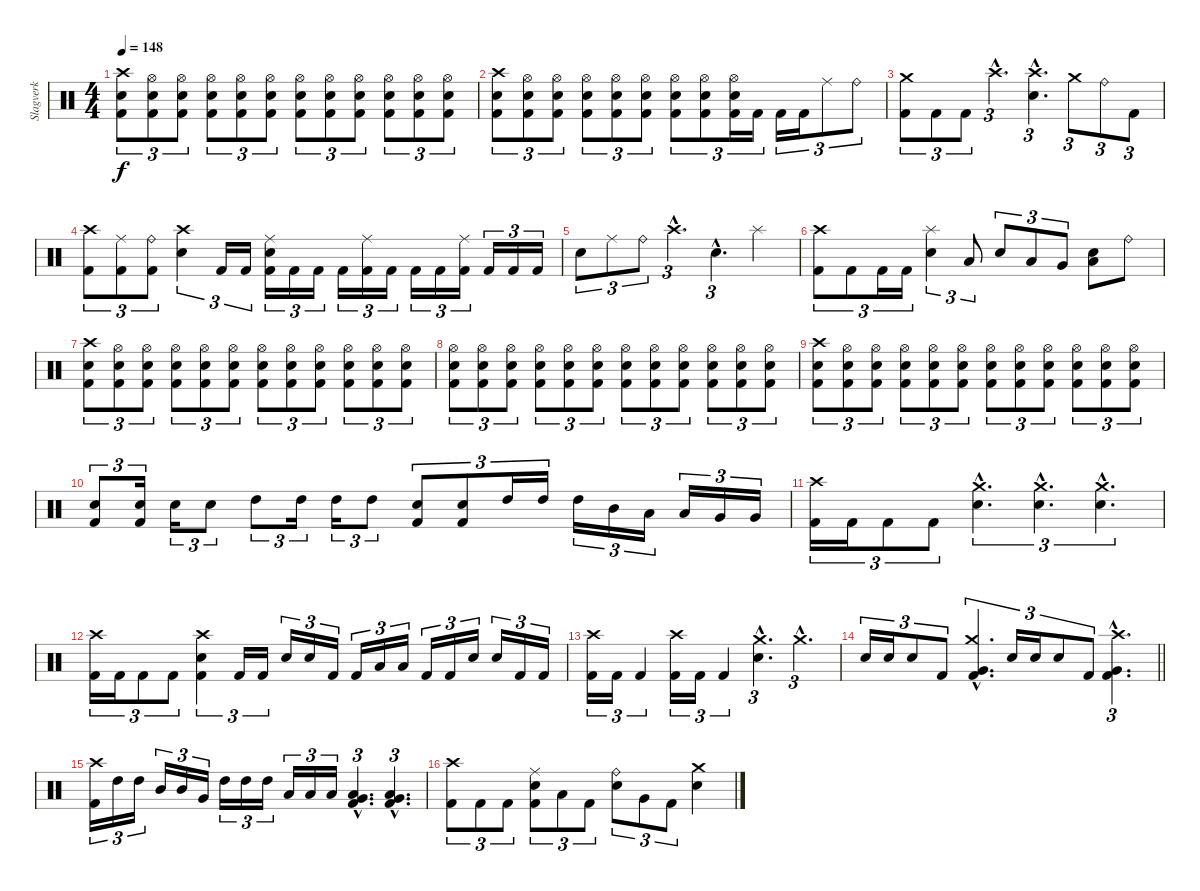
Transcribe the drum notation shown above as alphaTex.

\track ("Slagverk" "Slagverk") {instrument percussion}
\staff {score}
\articulation defaults
\ts (4 4)
\tempo 148
\clef neutral
\ks c
("Crash high (hit)" "Snare (hit) 2" "Kick (hit) 2").8{tu (3 2) dy f} ("Hi-Hat (open)" "Snare (hit) 2" "Kick (hit) 2").8{tu (3 2)} ("Hi-Hat (open)" "Snare (hit) 2" "Kick (hit) 2").8{tu (3 2)} ("Hi-Hat (open)" "Snare (hit) 2" "Kick (hit) 2").8{tu (3 2)} ("Hi-Hat (open)" "Snare (hit) 2" "Kick (hit) 2").8{tu (3 2)} ("Hi-Hat (open)" "Snare (hit) 2" "Kick (hit) 2").8{tu (3 2)} ("Hi-Hat (open)" "Snare (hit) 2" "Kick (hit) 2").8{tu (3 2)} ("Hi-Hat (open)" "Snare (hit) 2" "Kick (hit) 2").8{tu (3 2)} ("Hi-Hat (open)" "Snare (hit) 2" "Kick (hit) 2").8{tu (3 2)} ("Hi-Hat (open)" "Snare (hit) 2" "Kick (hit) 2").8{tu (3 2)} ("Hi-Hat (open)" "Snare (hit) 2" "Kick (hit) 2").8{tu (3 2)} ("Hi-Hat (open)" "Snare (hit) 2" "Kick (hit) 2").8{tu (3 2)} |
("Crash high (hit)" "Snare (hit) 2" "Kick (hit) 2").8{tu (3 2)} ("Hi-Hat (open)" "Snare (hit) 2" "Kick (hit) 2").8{tu (3 2)} ("Hi-Hat (open)" "Snare (hit) 2" "Kick (hit) 2").8{tu (3 2)} ("Hi-Hat (open)" "Snare (hit) 2" "Kick (hit) 2").8{tu (3 2)} ("Hi-Hat (open)" "Snare (hit) 2" "Kick (hit) 2").8{tu (3 2)} ("Hi-Hat (open)" "Snare (hit) 2" "Kick (hit) 2").8{tu (3 2)} ("Hi-Hat (open)" "Snare (hit) 2" "Kick (hit) 2").8{tu (3 2)} ("Hi-Hat (open)" "Snare (hit) 2" "Kick (hit) 2").8{tu (3 2)} ("Hi-Hat (open)" "Snare (hit) 2" "Kick (hit) 2").16{tu (3 2)} "Kick (hit) 2".16{tu (3 2)} "Kick (hit) 2".16{tu (3 2)} "Kick (hit) 2".16{tu (3 2)} "Ride (middle)".8{tu (3 2)} "Ride (bell)".8{tu (3 2)} |
("Crash medium (hit)" "Kick (hit) 2").8{tu (3 2)} "Kick (hit) 2".8{tu (3 2)} "Kick (hit) 2".8{tu (3 2)} "Crash high (hit)"{hac}.4{d tu (3 2)} ("Crash high (hit)"{hac} "Snare (hit) 2"{hac}).4{d tu (3 2)} "Crash medium (hit)".8{tu (3 2)} "Ride (bell)".8{tu (3 2)} "Kick (hit) 2".8{tu (3 2)} |
("Crash high (hit)" "Kick (hit) 2").8{tu (3 2)} ("Ride (middle)" "Kick (hit) 2").8{tu (3 2)} ("Ride (bell)" "Kick (hit) 2").8{tu (3 2)} ("Crash high (hit)" "Snare (hit) 2").4{tu (3 2)} "Kick (hit) 2".16{tu (3 2)} "Kick (hit) 2".16{tu (3 2)} ("Ride (middle)" "Snare (hit) 2" "Kick (hit) 2").16{tu (3 2)} "Kick (hit) 2".16{tu (3 2)} "Kick (hit) 2".16{tu (3 2)} "Kick (hit) 2".16{tu (3 2)} ("Ride (middle)" "Kick (hit) 2").16{tu (3 2)} "Kick (hit) 2".16{tu (3 2)} "Kick (hit) 2".16{tu (3 2)} "Kick (hit) 2".16{tu (3 2)} ("Ride (middle)" "Kick (hit) 2").16{tu (3 2)} "Kick (hit) 2".16{tu (3 2)} "Kick (hit) 2".16{tu (3 2)} "Kick (hit) 2".16{tu (3 2)} |
"Snare (hit) 2".8{tu (3 2)} "Ride (middle)".8{tu (3 2)} "Ride (bell)".8{tu (3 2)} "Crash high (hit)"{hac}.4{d tu (3 2)} "Snare (hit) 2"{hac}.4{d tu (3 2)} "Splash (hit)".4 |
("Crash high (hit)" "Kick (hit) 2").8{tu (3 2)} "Kick (hit) 2".8{tu (3 2)} "Kick (hit) 2".16{tu (3 2)} "Kick (hit) 2".16{tu (3 2)} ("Splash (hit)" "Snare (hit) 2").4{tu (3 2)} "Low Tom (hit)".8{tu (3 2)} "Snare (hit) 2".8{tu (3 2)} "Low Tom (hit)".8{tu (3 2)} "Very Low Tom (hit)".8{tu (3 2)} ("Snare (hit) 2" "Low Floor Tom (hit)").8 "Ride (bell)".8 |
("Crash high (hit)" "Snare (hit) 2" "Kick (hit) 2").8{tu (3 2)} ("Hi-Hat (open)" "Snare (hit) 2" "Kick (hit) 2").8{tu (3 2)} ("Hi-Hat (open)" "Snare (hit) 2" "Kick (hit) 2").8{tu (3 2)} ("Hi-Hat (open)" "Snare (hit) 2" "Kick (hit) 2").8{tu (3 2)} ("Hi-Hat (open)" "Snare (hit) 2" "Kick (hit) 2").8{tu (3 2)} ("Hi-Hat (open)" "Snare (hit) 2" "Kick (hit) 2").8{tu (3 2)} ("Hi-Hat (open)" "Snare (hit) 2" "Kick (hit) 2").8{tu (3 2)} ("Hi-Hat (open)" "Snare (hit) 2" "Kick (hit) 2").8{tu (3 2)} ("Hi-Hat (open)" "Snare (hit) 2" "Kick (hit) 2").8{tu (3 2)} ("Hi-Hat (open)" "Snare (hit) 2" "Kick (hit) 2").8{tu (3 2)} ("Hi-Hat (open)" "Snare (hit) 2" "Kick (hit) 2").8{tu (3 2)} ("Hi-Hat (open)" "Snare (hit) 2" "Kick (hit) 2").8{tu (3 2)} |
("Hi-Hat (open)" "Snare (hit) 2" "Kick (hit) 2").8{tu (3 2)} ("Hi-Hat (open)" "Snare (hit) 2" "Kick (hit) 2").8{tu (3 2)} ("Hi-Hat (open)" "Snare (hit) 2" "Kick (hit) 2").8{tu (3 2)} ("Hi-Hat (open)" "Snare (hit) 2" "Kick (hit) 2").8{tu (3 2)} ("Hi-Hat (open)" "Snare (hit) 2" "Kick (hit) 2").8{tu (3 2)} ("Hi-Hat (open)" "Snare (hit) 2" "Kick (hit) 2").8{tu (3 2)} ("Hi-Hat (open)" "Snare (hit) 2" "Kick (hit) 2").8{tu (3 2)} ("Hi-Hat (open)" "Snare (hit) 2" "Kick (hit) 2").8{tu (3 2)} ("Hi-Hat (open)" "Snare (hit) 2" "Kick (hit) 2").8{tu (3 2)} ("Hi-Hat (open)" "Snare (hit) 2" "Kick (hit) 2").8{tu (3 2)} ("Hi-Hat (open)" "Snare (hit) 2" "Kick (hit) 2").8{tu (3 2)} ("Hi-Hat (open)" "Snare (hit) 2" "Kick (hit) 2").8{tu (3 2)} |
("Crash high (hit)" "Snare (hit) 2" "Kick (hit) 2").8{tu (3 2)} ("Hi-Hat (open)" "Snare (hit) 2" "Kick (hit) 2").8{tu (3 2)} ("Hi-Hat (open)" "Snare (hit) 2" "Kick (hit) 2").8{tu (3 2)} ("Hi-Hat (open)" "Snare (hit) 2" "Kick (hit) 2").8{tu (3 2)} ("Hi-Hat (open)" "Snare (hit) 2" "Kick (hit) 2").8{tu (3 2)} ("Hi-Hat (open)" "Snare (hit) 2" "Kick (hit) 2").8{tu (3 2)} ("Hi-Hat (open)" "Snare (hit) 2" "Kick (hit) 2").8{tu (3 2)} ("Hi-Hat (open)" "Snare (hit) 2" "Kick (hit) 2").8{tu (3 2)} ("Hi-Hat (open)" "Snare (hit) 2" "Kick (hit) 2").8{tu (3 2)} ("Hi-Hat (open)" "Snare (hit) 2" "Kick (hit) 2").8{tu (3 2)} ("Hi-Hat (open)" "Snare (hit) 2" "Kick (hit) 2").8{tu (3 2)} ("Hi-Hat (open)" "Snare (hit) 2" "Kick (hit) 2").8{tu (3 2)} |
("Snare (hit) 2" "Kick (hit) 2").8{tu (3 2)} ("Snare (hit) 2" "Kick (hit) 2").16{tu (3 2)} "Snare (hit) 2".16{tu (3 2)} "Snare (hit) 2".8{tu (3 2)} "High Tom (hit)".8{tu (3 2)} "High Tom (hit)".16{tu (3 2)} "High Tom (hit)".16{tu (3 2)} "High Tom (hit)".8{tu (3 2)} ("Snare (hit) 2" "Kick (hit) 2").8{tu (3 2)} ("Snare (hit) 2" "Kick (hit) 2").8{tu (3 2)} "High Tom (hit)".16{tu (3 2)} "High Tom (hit)".16{tu (3 2)} "High Tom (hit)".16{tu (3 2)} "Mid Tom (hit)".16{tu (3 2)} "Low Tom (hit)".16{tu (3 2)} "Low Tom (hit)".16{tu (3 2)} "Very Low Tom (hit)".16{tu (3 2)} "Very Low Tom (hit)".16{tu (3 2)} |
("Crash high (hit)" "Kick (hit) 2").16{tu (3 2)} "Kick (hit) 2".16{tu (3 2)} "Kick (hit) 2".8{tu (3 2)} "Kick (hit) 2".8{tu (3 2)} ("Crash medium (hit)"{hac} "Snare (hit) 2"{hac}).4{d tu (3 2)} ("Crash medium (hit)"{hac} "Snare (hit) 2"{hac}).4{d tu (3 2)} ("Crash medium (hit)"{hac} "Snare (hit) 2"{hac}).4{d tu (3 2)} |
("Crash high (hit)" "Kick (hit) 2").16{tu (3 2)} "Kick (hit) 2".16{tu (3 2)} "Kick (hit) 2".8{tu (3 2)} "Kick (hit) 2".8{tu (3 2)} ("Crash high (hit)" "Kick (hit) 2" "Snare (hit) 2").4{tu (3 2)} "Kick (hit) 2".16{tu (3 2)} "Kick (hit) 2".16{tu (3 2)} "Snare (hit) 2".16{tu (3 2)} "Snare (hit) 2".16{tu (3 2)} "Kick (hit) 2".16{tu (3 2)} "Kick (hit) 2".16{tu (3 2)} "Low Tom (hit)".16{tu (3 2)} "Low Tom (hit)".16{tu (3 2)} "Kick (hit) 2".16{tu (3 2)} "Kick (hit) 2".16{tu (3 2)} "Snare (hit) 2".16{tu (3 2)} "Snare (hit) 2".16{tu (3 2)} "Kick (hit) 2".16{tu (3 2)} "Kick (hit) 2".16{tu (3 2)} |
("Crash high (hit)" "Kick (hit) 2").16{tu (3 2)} "Kick (hit) 2".16{tu (3 2)} "Kick (hit) 2".4{tu (3 2)} ("Crash high (hit)" "Kick (hit) 2").16{tu (3 2)} "Kick (hit) 2".16{tu (3 2)} "Kick (hit) 2".4{tu (3 2)} ("Crash medium (hit)"{hac} "Snare (hit) 2"{hac}).4{d tu (3 2)} "Crash medium (hit)"{hac}.4{d tu (3 2)} |
\barLineRight lightlight "Snare (hit) 2".16{tu (3 2)} "Snare (hit) 2".16{tu (3 2)} "Snare (hit) 2".8{tu (3 2)} "Kick (hit) 2".8{tu (3 2)}
("Crash medium (hit)"{hac} "Very Low Tom (hit)"{hac} "Kick (hit) 2"{hac}).4{d tu (3 2)} "Snare (hit) 2".16{tu (3 2)} "Snare (hit) 2".16{tu (3 2)} "Snare (hit) 2".8{tu (3 2)} "Kick (hit) 2".8{tu (3 2)} ("Crash high (hit)"{hac} "Very Low Tom (hit)"{hac} "Kick (hit) 2"{hac}).4{d tu (3 2)} |
("Crash high (hit)" "Kick (hit) 2").16{tu (3 2)} "High Tom (hit)".16{tu (3 2)} "High Tom (hit)".16{tu (3 2)} "Mid Tom (hit)".16{tu (3 2)} "Mid Tom (hit)".16{tu (3 2)} "Very Low Tom (hit)".16{tu (3 2)} "High Tom (hit)".16{tu (3 2)} "High Tom (hit)".16{tu (3 2)} "High Tom (hit)".16{tu (3 2)} "Low Tom (hit)".16{tu (3 2)} "Low Tom (hit)".16{tu (3 2)} "Low Tom (hit)".16{tu (3 2)} ("Low Floor Tom (hit)"{hac} "Very Low Tom (hit)"{hac} "Kick (hit) 2"{hac}).4{d tu (3 2)} ("Low Floor Tom (hit)"{hac} "Very Low Tom (hit)"{hac} "Kick (hit) 2"{hac}).4{d tu (3 2)} |
("Crash high (hit)" "Kick (hit) 2").8{tu (3 2)} "Kick (hit) 2".8{tu (3 2)} "Kick (hit) 2".8{tu (3 2)} ("Ride (middle)" "Snare (hit) 2" "Kick (hit) 2").8{tu (3 2)} "Low Tom (hit)".8{tu (3 2)} "Kick (hit) 2".8{tu (3 2)} ("Ride (bell)" "Snare (hit) 2").8{tu (3 2)} "Very Low Tom (hit)".8{tu (3 2)} "Kick (hit) 2".8{tu (3 2)} ("Crash medium (hit)" "Snare (hit) 2").4
